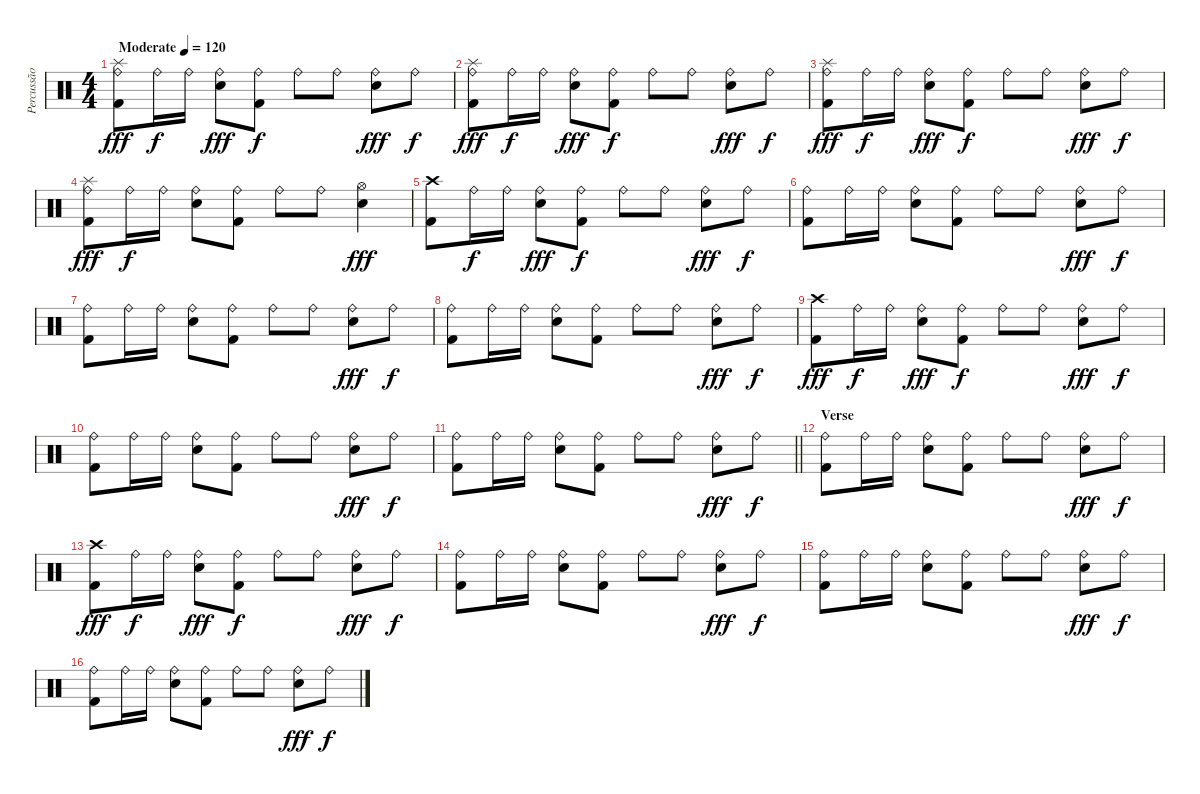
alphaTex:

\track ("Percussão" "Percussão") {instrument percussion}
\staff {score}
\articulation defaults
\ts (4 4)
\tempo (120 "Moderate")
\clef neutral
\ks c
("Splash (hit)" "Ride (bell)" "Kick (hit) 2").8{dy fff} "Ride (bell)".16{dy f} "Ride (bell)".16 ("Ride (bell)" "Electric Snare (hit)").8{dy fff} ("Ride (bell)" "Kick (hit) 2").8{dy f} "Ride (bell)".8 "Ride (bell)".8 ("Ride (bell)" "Electric Snare (hit)").8{dy fff} "Ride (bell)".8{dy f} |
("Splash (hit)" "Ride (bell)" "Kick (hit) 2").8{dy fff} "Ride (bell)".16{dy f} "Ride (bell)".16 ("Ride (bell)" "Electric Snare (hit)").8{dy fff} ("Ride (bell)" "Kick (hit) 2").8{dy f} "Ride (bell)".8 "Ride (bell)".8 ("Ride (bell)" "Electric Snare (hit)").8{dy fff} "Ride (bell)".8{dy f} |
("Splash (hit)" "Ride (bell)" "Kick (hit) 2").8{dy fff} "Ride (bell)".16{dy f} "Ride (bell)".16 ("Ride (bell)" "Electric Snare (hit)").8{dy fff} ("Ride (bell)" "Kick (hit) 2").8{dy f} "Ride (bell)".8 "Ride (bell)".8 ("Ride (bell)" "Electric Snare (hit)").8{dy fff} "Ride (bell)".8{dy f} |
("Splash (hit)" "Ride (bell)" "Kick (hit) 2").8{dy fff} "Ride (bell)".16{dy f} "Ride (bell)".16 ("Ride (bell)" "Electric Snare (hit)").8 ("Ride (bell)" "Kick (hit) 2").8 "Ride (bell)".8 "Ride (bell)".8 ("Hi-Hat (open)" "Electric Snare (hit)").4{dy fff} |
("Crash high (hit)" "Kick (hit) 2").8 "Ride (bell)".16{dy f} "Ride (bell)".16 ("Ride (bell)" "Electric Snare (hit)").8{dy fff} ("Ride (bell)" "Kick (hit) 2").8{dy f} "Ride (bell)".8 "Ride (bell)".8 ("Ride (bell)" "Electric Snare (hit)").8{dy fff} "Ride (bell)".8{dy f} |
("Ride (bell)" "Kick (hit) 2").8 "Ride (bell)".16 "Ride (bell)".16 ("Ride (bell)" "Electric Snare (hit)").8 ("Ride (bell)" "Kick (hit) 2").8 "Ride (bell)".8 "Ride (bell)".8 ("Ride (bell)" "Electric Snare (hit)").8{dy fff} "Ride (bell)".8{dy f} |
("Ride (bell)" "Kick (hit) 2").8 "Ride (bell)".16 "Ride (bell)".16 ("Ride (bell)" "Electric Snare (hit)").8 ("Ride (bell)" "Kick (hit) 2").8 "Ride (bell)".8 "Ride (bell)".8 ("Ride (bell)" "Electric Snare (hit)").8{dy fff} "Ride (bell)".8{dy f} |
("Ride (bell)" "Kick (hit) 2").8 "Ride (bell)".16 "Ride (bell)".16 ("Ride (bell)" "Electric Snare (hit)").8 ("Ride (bell)" "Kick (hit) 2").8 "Ride (bell)".8 "Ride (bell)".8 ("Ride (bell)" "Electric Snare (hit)").8{dy fff} "Ride (bell)".8{dy f} |
("Crash high (hit)" "Kick (hit) 2").8{dy fff} "Ride (bell)".16{dy f} "Ride (bell)".16 ("Ride (bell)" "Electric Snare (hit)").8{dy fff} ("Ride (bell)" "Kick (hit) 2").8{dy f} "Ride (bell)".8 "Ride (bell)".8 ("Ride (bell)" "Electric Snare (hit)").8{dy fff} "Ride (bell)".8{dy f} |
("Ride (bell)" "Kick (hit) 2").8 "Ride (bell)".16 "Ride (bell)".16 ("Ride (bell)" "Electric Snare (hit)").8 ("Ride (bell)" "Kick (hit) 2").8 "Ride (bell)".8 "Ride (bell)".8 ("Ride (bell)" "Electric Snare (hit)").8{dy fff} "Ride (bell)".8{dy f} |
\barLineRight lightlight
("Ride (bell)" "Kick (hit) 2").8 "Ride (bell)".16 "Ride (bell)".16 ("Ride (bell)" "Electric Snare (hit)").8 ("Ride (bell)" "Kick (hit) 2").8 "Ride (bell)".8 "Ride (bell)".8 ("Ride (bell)" "Electric Snare (hit)").8{dy fff} "Ride (bell)".8{dy f} |
\section ("" "Verse")
("Ride (bell)" "Kick (hit) 2").8 "Ride (bell)".16 "Ride (bell)".16 ("Ride (bell)" "Electric Snare (hit)").8 ("Ride (bell)" "Kick (hit) 2").8 "Ride (bell)".8 "Ride (bell)".8 ("Ride (bell)" "Electric Snare (hit)").8{dy fff} "Ride (bell)".8{dy f} |
("Crash high (hit)" "Kick (hit) 2").8{dy fff} "Ride (bell)".16{dy f} "Ride (bell)".16 ("Ride (bell)" "Electric Snare (hit)").8{dy fff} ("Ride (bell)" "Kick (hit) 2").8{dy f} "Ride (bell)".8 "Ride (bell)".8 ("Ride (bell)" "Electric Snare (hit)").8{dy fff} "Ride (bell)".8{dy f} |
("Ride (bell)" "Kick (hit) 2").8 "Ride (bell)".16 "Ride (bell)".16 ("Ride (bell)" "Electric Snare (hit)").8 ("Ride (bell)" "Kick (hit) 2").8 "Ride (bell)".8 "Ride (bell)".8 ("Ride (bell)" "Electric Snare (hit)").8{dy fff} "Ride (bell)".8{dy f} |
("Ride (bell)" "Kick (hit) 2").8 "Ride (bell)".16 "Ride (bell)".16 ("Ride (bell)" "Electric Snare (hit)").8 ("Ride (bell)" "Kick (hit) 2").8 "Ride (bell)".8 "Ride (bell)".8 ("Ride (bell)" "Electric Snare (hit)").8{dy fff} "Ride (bell)".8{dy f} |
("Ride (bell)" "Kick (hit) 2").8 "Ride (bell)".16 "Ride (bell)".16 ("Ride (bell)" "Electric Snare (hit)").8 ("Ride (bell)" "Kick (hit) 2").8 "Ride (bell)".8 "Ride (bell)".8 ("Ride (bell)" "Electric Snare (hit)").8{dy fff} "Ride (bell)".8{dy f}
